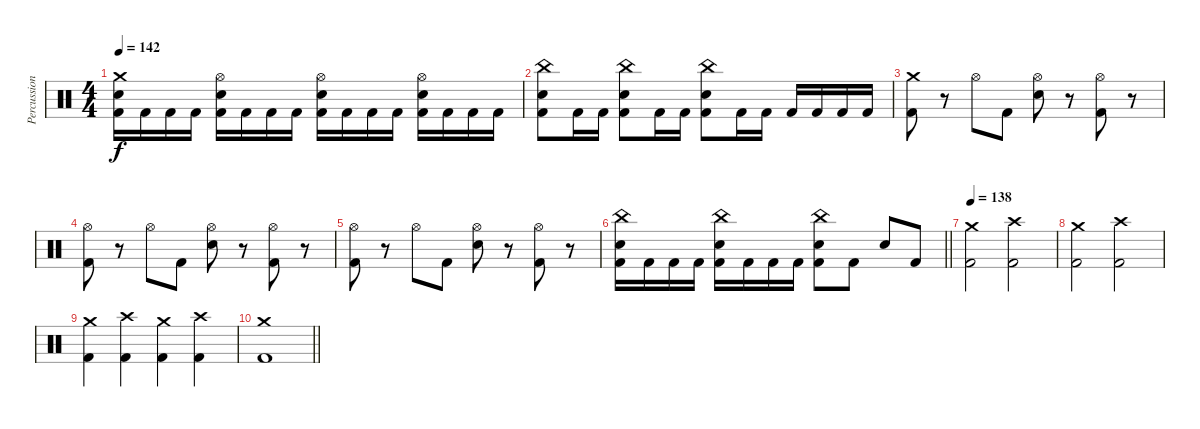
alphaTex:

\track ("Percussion" "Percussion") {instrument percussion}
\staff {score}
\articulation defaults
\ts (4 4)
\tempo 142
\clef neutral
\ks c
("Crash medium (hit)" "Snare (hit) 2" "Kick (hit) 2").16{dy f} "Kick (hit) 2".16 "Kick (hit) 2".16 "Kick (hit) 2".16 ("Hi-Hat (open)" "Snare (hit) 2" "Kick (hit) 2").16 "Kick (hit) 2".16 "Kick (hit) 2".16 "Kick (hit) 2".16 ("Hi-Hat (open)" "Snare (hit) 2" "Kick (hit) 2").16 "Kick (hit) 2".16 "Kick (hit) 2".16 "Kick (hit) 2".16 ("Hi-Hat (open)" "Snare (hit) 2" "Kick (hit) 2").16 "Kick (hit) 2".16 "Kick (hit) 2".16 "Kick (hit) 2".16 |
("China (hit)" "Snare (hit) 2" "Kick (hit) 2").8 "Kick (hit) 2".16 "Kick (hit) 2".16 ("China (hit)" "Snare (hit) 2" "Kick (hit) 2").8 "Kick (hit) 2".16 "Kick (hit) 2".16 ("China (hit)" "Snare (hit) 2" "Kick (hit) 2").8 "Kick (hit) 2".16 "Kick (hit) 2".16 "Kick (hit) 2".16 "Kick (hit) 2".16 "Kick (hit) 2".16 "Kick (hit) 2".16 |
("Crash medium (hit)" "Kick (hit) 2").8 r.8 "Hi-Hat (open)".8 "Kick (hit) 2".8 ("Hi-Hat (open)" "Snare (hit) 2").8 r.8 ("Hi-Hat (open)" "Kick (hit) 2").8 r.8 |
("Hi-Hat (open)" "Kick (hit) 2").8 r.8 "Hi-Hat (open)".8 "Kick (hit) 2".8 ("Hi-Hat (open)" "Snare (hit) 2").8 r.8 ("Hi-Hat (open)" "Kick (hit) 2").8 r.8 |
("Hi-Hat (open)" "Kick (hit) 2").8 r.8 "Hi-Hat (open)".8 "Kick (hit) 2".8 ("Hi-Hat (open)" "Snare (hit) 2").8 r.8 ("Hi-Hat (open)" "Kick (hit) 2").8 r.8 |
\barLineRight lightlight
("China (hit)" "Snare (hit) 2" "Kick (hit) 2").16 "Kick (hit) 2".16 "Kick (hit) 2".16 "Kick (hit) 2".16 ("China (hit)" "Snare (hit) 2" "Kick (hit) 2").16 "Kick (hit) 2".16 "Kick (hit) 2".16 "Kick (hit) 2".16 ("China (hit)" "Snare (hit) 2" "Kick (hit) 2").8 "Kick (hit) 2".8 "Snare (hit) 2".8 "Kick (hit) 2".8 |
\tempo 138
("Crash medium (hit)" "Kick (hit) 2").2 ("Crash high (hit)" "Kick (hit) 2").2 |
("Crash medium (hit)" "Kick (hit) 2").2 ("Crash high (hit)" "Kick (hit) 2").2 |
("Crash medium (hit)" "Kick (hit) 2").4 ("Crash high (hit)" "Kick (hit) 2").4 ("Crash medium (hit)" "Kick (hit) 2").4 ("Crash high (hit)" "Kick (hit) 2").4 |
\barLineRight lightlight
("Crash medium (hit)" "Kick (hit) 2").1
